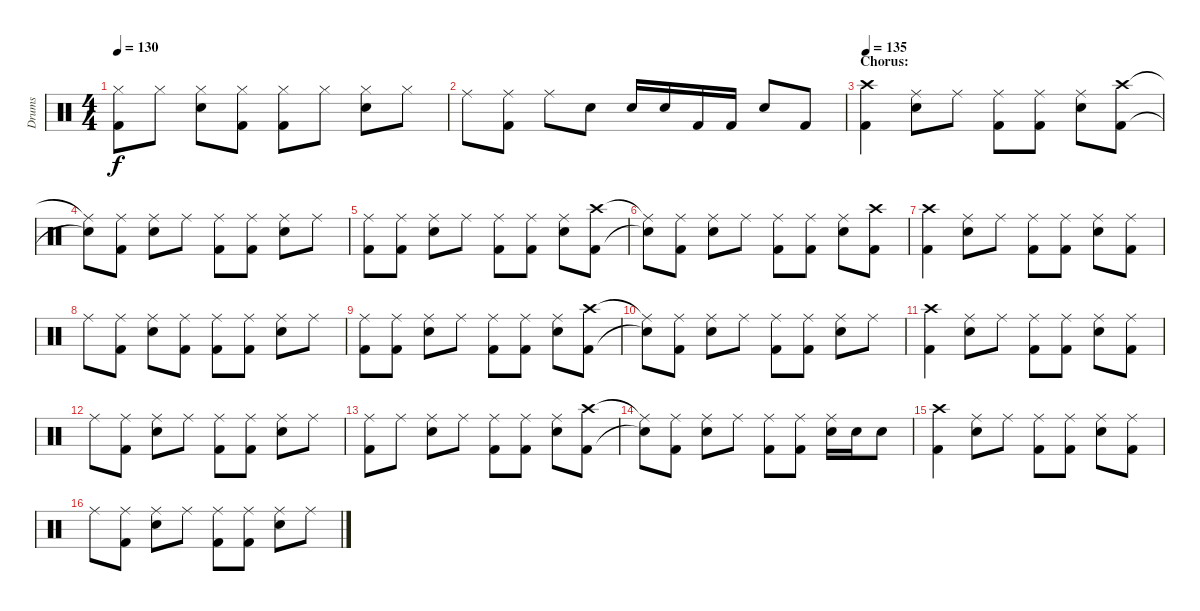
\track ("Drums" "Drums") {instrument percussion}
\staff {score}
\articulation defaults
\ts (4 4)
\tempo 130
\clef neutral
\ks c
("Hi-Hat (closed)" "Kick (hit) 2").8{dy f} "Hi-Hat (closed)".8 ("Hi-Hat (closed)" "Electric Snare (hit)").8 ("Hi-Hat (closed)" "Kick (hit) 2").8 ("Hi-Hat (closed)" "Kick (hit) 2").8 "Hi-Hat (closed)".8 ("Hi-Hat (closed)" "Electric Snare (hit)").8 "Hi-Hat (closed)".8 |
"Ride (middle)".8 ("Ride (middle)" "Kick (hit) 2").8 "Ride (middle)".8 "Electric Snare (hit)".8 "Electric Snare (hit)".16 "Electric Snare (hit)".16 "Kick (hit) 2".16 "Kick (hit) 2".16 "Electric Snare (hit)".8 "Kick (hit) 2".8 |
\section ("" "Chorus:")
\tempo 135
("Crash high (hit)" "Kick (hit) 2").4 ("Ride (middle)" "Electric Snare (hit)").8 "Ride (middle)".8 ("Ride (middle)" "Kick (hit) 2").8 ("Ride (middle)" "Kick (hit) 2").8 ("Ride (middle)" "Electric Snare (hit)").8 ("Crash high (hit)" "Kick (hit) 2").8 |
("Ride (middle)"{t} "Snare (hit)"{t}).8 ("Ride (middle)" "Kick (hit) 2").8 ("Ride (middle)" "Electric Snare (hit)").8 "Ride (middle)".8 ("Ride (middle)" "Kick (hit) 2").8 ("Ride (middle)" "Kick (hit) 2").8 ("Ride (middle)" "Electric Snare (hit)").8 "Ride (middle)".8 |
("Ride (middle)" "Kick (hit) 2").8 ("Ride (middle)" "Kick (hit) 2").8 ("Ride (middle)" "Electric Snare (hit)").8 "Ride (middle)".8 ("Ride (middle)" "Kick (hit) 2").8 ("Ride (middle)" "Kick (hit) 2").8 ("Ride (middle)" "Electric Snare (hit)").8 ("Crash high (hit)" "Kick (hit) 2").8 |
("Ride (middle)"{t} "Snare (hit)"{t}).8 ("Ride (middle)" "Kick (hit) 2").8 ("Ride (middle)" "Electric Snare (hit)").8 "Ride (middle)".8 ("Ride (middle)" "Kick (hit) 2").8 ("Ride (middle)" "Kick (hit) 2").8 ("Ride (middle)" "Electric Snare (hit)").8 ("Crash high (hit)" "Kick (hit) 2").8 |
("Crash high (hit)" "Kick (hit) 2").4 ("Ride (middle)" "Electric Snare (hit)").8 "Ride (middle)".8 ("Ride (middle)" "Kick (hit) 2").8 ("Ride (middle)" "Kick (hit) 2").8 ("Ride (middle)" "Electric Snare (hit)").8 ("Ride (middle)" "Kick (hit) 2").8 |
"Ride (middle)".8 ("Ride (middle)" "Kick (hit) 2").8 ("Ride (middle)" "Electric Snare (hit)").8 ("Ride (middle)" "Kick (hit) 2").8 ("Ride (middle)" "Kick (hit) 2").8 ("Ride (middle)" "Kick (hit) 2").8 ("Ride (middle)" "Electric Snare (hit)").8 "Ride (middle)".8 |
("Ride (middle)" "Kick (hit) 2").8 ("Ride (middle)" "Kick (hit) 2").8 ("Ride (middle)" "Electric Snare (hit)").8 "Ride (middle)".8 ("Ride (middle)" "Kick (hit) 2").8 ("Ride (middle)" "Kick (hit) 2").8 ("Ride (middle)" "Electric Snare (hit)").8 ("Crash high (hit)" "Kick (hit) 2").8 |
("Ride (middle)"{t} "Snare (hit)"{t}).8 ("Ride (middle)" "Kick (hit) 2").8 ("Ride (middle)" "Electric Snare (hit)").8 "Ride (middle)".8 ("Ride (middle)" "Kick (hit) 2").8 ("Ride (middle)" "Kick (hit) 2").8 ("Ride (middle)" "Electric Snare (hit)").8 "Ride (middle)".8 |
("Crash high (hit)" "Kick (hit) 2").4 ("Ride (middle)" "Electric Snare (hit)").8 "Ride (middle)".8 ("Ride (middle)" "Kick (hit) 2").8 ("Ride (middle)" "Kick (hit) 2").8 ("Ride (middle)" "Electric Snare (hit)").8 ("Ride (middle)" "Kick (hit) 2").8 |
"Ride (middle)".8 ("Ride (middle)" "Kick (hit) 2").8 ("Ride (middle)" "Electric Snare (hit)").8 "Ride (middle)".8 ("Ride (middle)" "Kick (hit) 2").8 ("Ride (middle)" "Kick (hit) 2").8 ("Ride (middle)" "Electric Snare (hit)").8 "Ride (middle)".8 |
("Ride (middle)" "Kick (hit) 2").8 "Ride (middle)".8 ("Ride (middle)" "Electric Snare (hit)").8 "Ride (middle)".8 ("Ride (middle)" "Kick (hit) 2").8 ("Ride (middle)" "Kick (hit) 2").8 ("Ride (middle)" "Electric Snare (hit)").8 ("Crash high (hit)" "Kick (hit) 2").8 |
("Ride (middle)"{t} "Snare (hit)"{t}).8 ("Ride (middle)" "Kick (hit) 2").8 ("Ride (middle)" "Electric Snare (hit)").8 "Ride (middle)".8 ("Ride (middle)" "Kick (hit) 2").8 ("Ride (middle)" "Kick (hit) 2").8 ("Ride (middle)" "Electric Snare (hit)").16 "Electric Snare (hit)".16 "Electric Snare (hit)".8 |
("Crash high (hit)" "Kick (hit) 2").4 ("Ride (middle)" "Electric Snare (hit)").8 "Ride (middle)".8 ("Ride (middle)" "Kick (hit) 2").8 ("Ride (middle)" "Kick (hit) 2").8 ("Ride (middle)" "Electric Snare (hit)").8 ("Ride (middle)" "Kick (hit) 2").8 |
"Ride (middle)".8 ("Ride (middle)" "Kick (hit) 2").8 ("Ride (middle)" "Electric Snare (hit)").8 "Ride (middle)".8 ("Ride (middle)" "Kick (hit) 2").8 ("Ride (middle)" "Kick (hit) 2").8 ("Ride (middle)" "Electric Snare (hit)").8 "Ride (middle)".8
